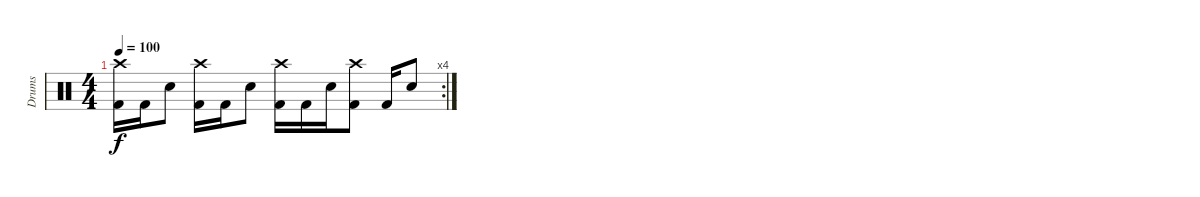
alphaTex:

\track ("Drums" "Drums") {instrument percussion}
\staff {score}
\articulation defaults
\rc 4
\ts (4 4)
\tempo 100
\clef neutral
\ks c
("Crash high (hit)" "Kick (hit) 2").16{dy f} "Kick (hit) 2".16 "Snare (hit) 2".8 ("Crash high (hit)" "Kick (hit) 2").16 "Kick (hit) 2".16 "Snare (hit) 2".8 ("Crash high (hit)" "Kick (hit) 2").16 "Kick (hit) 2".16 "Snare (hit) 2".16 ("Crash high (hit)" "Kick (hit) 2").8 "Kick (hit) 2".16 "Snare (hit) 2".8
